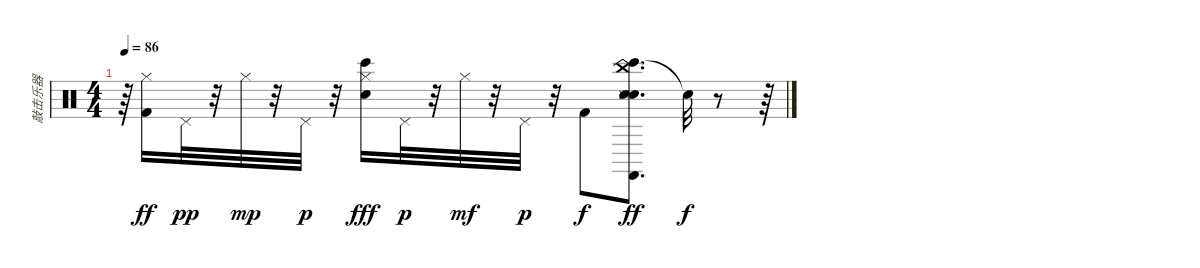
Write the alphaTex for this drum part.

\track ("敲击乐器" "敲击乐器") {instrument percussion}
\staff {score}
\articulation defaults
\ts (4 4)
\tempo 86
\clef neutral
\ks c
r.64{dy p} ("Hi-Hat (closed)" "Kick (hit) 2").16{dy ff} "Pedal Hi-Hat (hit)".32{dy pp} r.32 "Hi-Hat (closed)".32{dy mp} r.32 "Pedal Hi-Hat (hit)".32{dy p} r.32 ("Hi-Hat (closed)" "Electric Snare (hit)" "Bongo High (hit)").16{dy fff} "Pedal Hi-Hat (hit)".32{dy p} r.32 "Hi-Hat (closed)".32{dy mf} r.32 "Pedal Hi-Hat (hit)".32{dy p} r.32 "Kick (hit) 2".8{dy f} ("China (hit)" "Bongo High (hit)" "Hand Clap (hit)" "Snare (side stick) 3" "Castanets (hit)" "Snare (hit)").8{d dy ff} "Snare (hit)"{t}.32{dy f} r.8 r.64
